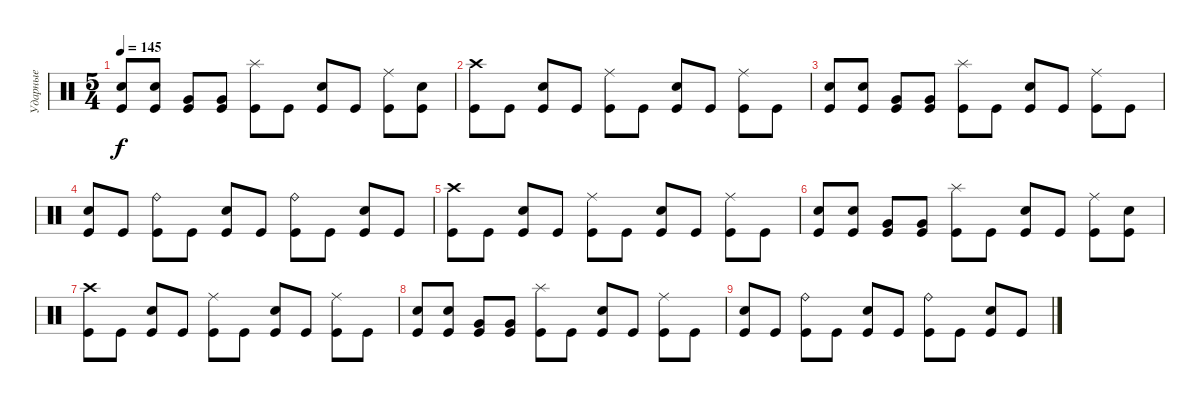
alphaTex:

\track ("Ударные" "Ударные") {instrument percussion}
\staff {score}
\articulation defaults
\ts (5 4)
\tempo 145
\clef neutral
\ks c
("Electric Snare (hit)" "Kick (hit)").8{dy f} ("Electric Snare (hit)" "Kick (hit)").8 ("Very Low Tom (hit)" "Kick (hit)").8 ("Very Low Tom (hit)" "Kick (hit)").8 ("Splash (hit)" "Kick (hit)").8 "Kick (hit)".8 ("Electric Snare (hit)" "Kick (hit)").8 "Kick (hit)".8 ("Ride (middle)" "Kick (hit)").8 ("Electric Snare (hit)" "Kick (hit)").8 |
("Crash high (hit)" "Kick (hit)").8 "Kick (hit)".8 ("Electric Snare (hit)" "Kick (hit)").8 "Kick (hit)".8 ("Ride (middle)" "Kick (hit)").8 "Kick (hit)".8 ("Electric Snare (hit)" "Kick (hit)").8 "Kick (hit)".8 ("Ride (middle)" "Kick (hit)").8 "Kick (hit)".8 |
("Electric Snare (hit)" "Kick (hit)").8 ("Electric Snare (hit)" "Kick (hit)").8 ("Very Low Tom (hit)" "Kick (hit)").8 ("Very Low Tom (hit)" "Kick (hit)").8 ("Splash (hit)" "Kick (hit)").8 "Kick (hit)".8 ("Electric Snare (hit)" "Kick (hit)").8 "Kick (hit)".8 ("Ride (middle)" "Kick (hit)").8 "Kick (hit)".8 |
("Electric Snare (hit)" "Kick (hit)").8 "Kick (hit)".8 ("Ride (bell)" "Kick (hit)").8 "Kick (hit)".8 ("Electric Snare (hit)" "Kick (hit)").8 "Kick (hit)".8 ("Ride (bell)" "Kick (hit)").8 "Kick (hit)".8 ("Electric Snare (hit)" "Kick (hit)").8 "Kick (hit)".8 |
("Crash high (hit)" "Kick (hit)").8 "Kick (hit)".8 ("Electric Snare (hit)" "Kick (hit)").8 "Kick (hit)".8 ("Ride (middle)" "Kick (hit)").8 "Kick (hit)".8 ("Electric Snare (hit)" "Kick (hit)").8 "Kick (hit)".8 ("Ride (middle)" "Kick (hit)").8 "Kick (hit)".8 |
("Electric Snare (hit)" "Kick (hit)").8 ("Electric Snare (hit)" "Kick (hit)").8 ("Very Low Tom (hit)" "Kick (hit)").8 ("Very Low Tom (hit)" "Kick (hit)").8 ("Splash (hit)" "Kick (hit)").8 "Kick (hit)".8 ("Electric Snare (hit)" "Kick (hit)").8 "Kick (hit)".8 ("Ride (middle)" "Kick (hit)").8 ("Electric Snare (hit)" "Kick (hit)").8 |
("Crash high (hit)" "Kick (hit)").8 "Kick (hit)".8 ("Electric Snare (hit)" "Kick (hit)").8 "Kick (hit)".8 ("Ride (middle)" "Kick (hit)").8 "Kick (hit)".8 ("Electric Snare (hit)" "Kick (hit)").8 "Kick (hit)".8 ("Ride (middle)" "Kick (hit)").8 "Kick (hit)".8 |
("Electric Snare (hit)" "Kick (hit)").8 ("Electric Snare (hit)" "Kick (hit)").8 ("Very Low Tom (hit)" "Kick (hit)").8 ("Very Low Tom (hit)" "Kick (hit)").8 ("Splash (hit)" "Kick (hit)").8 "Kick (hit)".8 ("Electric Snare (hit)" "Kick (hit)").8 "Kick (hit)".8 ("Ride (middle)" "Kick (hit)").8 "Kick (hit)".8 |
("Electric Snare (hit)" "Kick (hit)").8 "Kick (hit)".8 ("Ride (bell)" "Kick (hit)").8 "Kick (hit)".8 ("Electric Snare (hit)" "Kick (hit)").8 "Kick (hit)".8 ("Ride (bell)" "Kick (hit)").8 "Kick (hit)".8 ("Electric Snare (hit)" "Kick (hit)").8 "Kick (hit)".8
